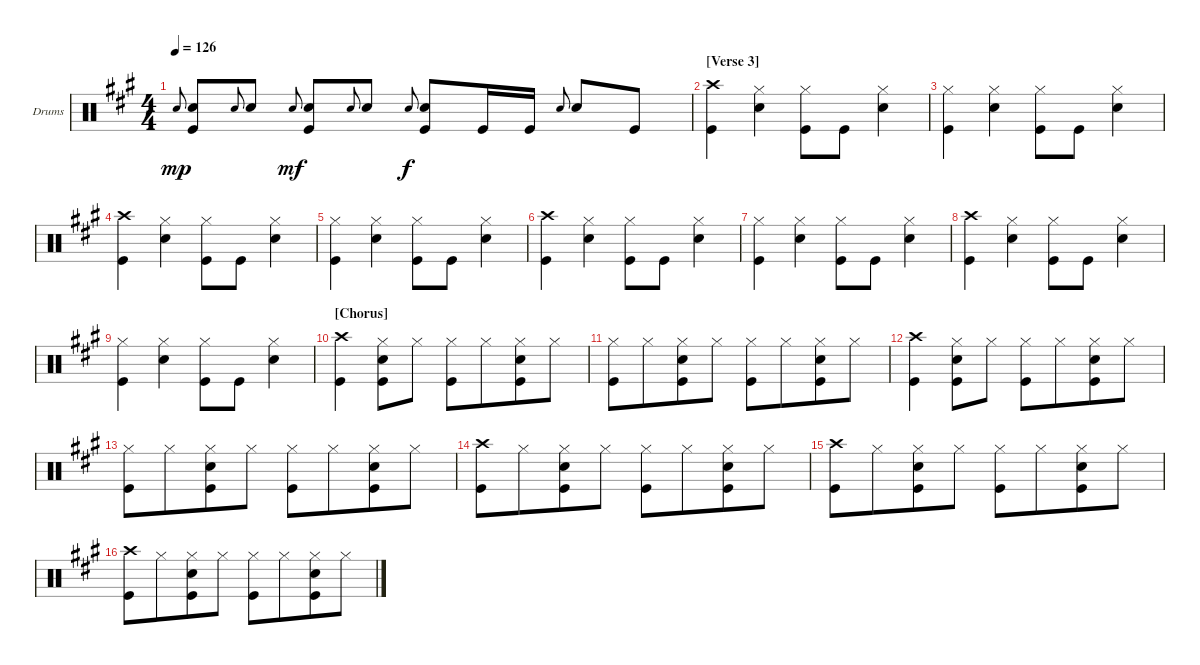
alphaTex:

\defaultSystemsLayout 4
\bracketExtendMode groupsimilarinstruments
\firstSystemTrackNameOrientation horizontal
\otherSystemsTrackNameOrientation horizontal
\track ("Drums" "Drums") {instrument percussion}
\staff {score}
\articulation defaults
\ts (4 4)
\tempo 126
\clef neutral
\ks a "Snare (hit) 2".8{gr onbeat dy mp}
("Kick (hit)" "Snare (hit) 2").8 "Snare (hit) 2".8{gr onbeat} "Snare (hit) 2".8 "Snare (hit) 2".8{gr onbeat dy mf} ("Kick (hit)" "Snare (hit) 2").8 "Snare (hit) 2".8{gr onbeat} "Snare (hit) 2".8 "Snare (hit) 2".8{gr onbeat dy f} ("Kick (hit)" "Snare (hit) 2").8 "Kick (hit)".16 "Kick (hit)".16 "Snare (hit) 2".8{gr onbeat} "Snare (hit) 2".8 "Kick (hit)".8 |
\section ("" "[Verse 3]")
("Kick (hit)" "Crash high (hit)").4 ("Snare (hit) 2" "Hi-Hat (closed)").4 ("Kick (hit)" "Hi-Hat (closed)").8 "Kick (hit)".8 ("Snare (hit) 2" "Hi-Hat (closed)").4 |
("Hi-Hat (closed)" "Kick (hit)").4 ("Snare (hit) 2" "Hi-Hat (closed)").4 ("Kick (hit)" "Hi-Hat (closed)").8 "Kick (hit)".8 ("Snare (hit) 2" "Hi-Hat (closed)").4 |
("Kick (hit)" "Crash high (hit)").4 ("Snare (hit) 2" "Hi-Hat (closed)").4 ("Kick (hit)" "Hi-Hat (closed)").8 "Kick (hit)".8 ("Snare (hit) 2" "Hi-Hat (closed)").4 |
("Hi-Hat (closed)" "Kick (hit)").4 ("Snare (hit) 2" "Hi-Hat (closed)").4 ("Kick (hit)" "Hi-Hat (closed)").8 "Kick (hit)".8 ("Snare (hit) 2" "Hi-Hat (closed)").4 |
("Kick (hit)" "Crash high (hit)").4 ("Snare (hit) 2" "Hi-Hat (closed)").4 ("Kick (hit)" "Hi-Hat (closed)").8 "Kick (hit)".8 ("Snare (hit) 2" "Hi-Hat (closed)").4 |
("Hi-Hat (closed)" "Kick (hit)").4 ("Snare (hit) 2" "Hi-Hat (closed)").4 ("Kick (hit)" "Hi-Hat (closed)").8 "Kick (hit)".8 ("Snare (hit) 2" "Hi-Hat (closed)").4 |
("Kick (hit)" "Crash high (hit)").4 ("Snare (hit) 2" "Hi-Hat (closed)").4 ("Kick (hit)" "Hi-Hat (closed)").8 "Kick (hit)".8 ("Snare (hit) 2" "Hi-Hat (closed)").4 |
("Hi-Hat (closed)" "Kick (hit)").4 ("Snare (hit) 2" "Hi-Hat (closed)").4 ("Kick (hit)" "Hi-Hat (closed)").8 "Kick (hit)".8 ("Snare (hit) 2" "Hi-Hat (closed)").4 |
\section ("" "[Chorus]")
("Kick (hit)" "Crash high (hit)").4 ("Kick (hit)" "Hi-Hat (closed)" "Snare (hit) 2").8 "Hi-Hat (closed)".8 ("Kick (hit)" "Hi-Hat (closed)").8 "Hi-Hat (closed)".8{beam merge} ("Kick (hit)" "Hi-Hat (closed)" "Snare (hit) 2").8 "Hi-Hat (closed)".8 |
("Kick (hit)" "Hi-Hat (closed)").8 "Hi-Hat (closed)".8{beam merge} ("Kick (hit)" "Hi-Hat (closed)" "Snare (hit) 2").8 "Hi-Hat (closed)".8 ("Kick (hit)" "Hi-Hat (closed)").8 "Hi-Hat (closed)".8{beam merge} ("Kick (hit)" "Hi-Hat (closed)" "Snare (hit) 2").8 "Hi-Hat (closed)".8 |
("Kick (hit)" "Crash high (hit)").4 ("Kick (hit)" "Hi-Hat (closed)" "Snare (hit) 2").8 "Hi-Hat (closed)".8 ("Kick (hit)" "Hi-Hat (closed)").8 "Hi-Hat (closed)".8{beam merge} ("Kick (hit)" "Hi-Hat (closed)" "Snare (hit) 2").8 "Hi-Hat (closed)".8 |
("Kick (hit)" "Hi-Hat (closed)").8{beam merge} "Hi-Hat (closed)".8{beam merge} ("Kick (hit)" "Hi-Hat (closed)" "Snare (hit) 2").8 "Hi-Hat (closed)".8 ("Kick (hit)" "Hi-Hat (closed)").8 "Hi-Hat (closed)".8{beam merge} ("Kick (hit)" "Hi-Hat (closed)" "Snare (hit) 2").8 "Hi-Hat (closed)".8 |
("Crash high (hit)" "Kick (hit)").8 "Hi-Hat (closed)".8{beam merge} ("Hi-Hat (closed)" "Kick (hit)" "Snare (hit) 2").8 "Hi-Hat (closed)".8 ("Hi-Hat (closed)" "Kick (hit)").8 "Hi-Hat (closed)".8{beam merge} ("Hi-Hat (closed)" "Kick (hit)" "Snare (hit) 2").8 "Hi-Hat (closed)".8 |
("Crash high (hit)" "Kick (hit)").8 "Hi-Hat (closed)".8{beam merge} ("Hi-Hat (closed)" "Kick (hit)" "Snare (hit) 2").8 "Hi-Hat (closed)".8 ("Hi-Hat (closed)" "Kick (hit)").8 "Hi-Hat (closed)".8{beam merge} ("Hi-Hat (closed)" "Kick (hit)" "Snare (hit) 2").8 "Hi-Hat (closed)".8 |
("Crash high (hit)" "Kick (hit)").8 "Hi-Hat (closed)".8{beam merge} ("Hi-Hat (closed)" "Kick (hit)" "Snare (hit) 2").8 "Hi-Hat (closed)".8 ("Hi-Hat (closed)" "Kick (hit)").8 "Hi-Hat (closed)".8{beam merge} ("Hi-Hat (closed)" "Kick (hit)" "Snare (hit) 2").8 "Hi-Hat (closed)".8
